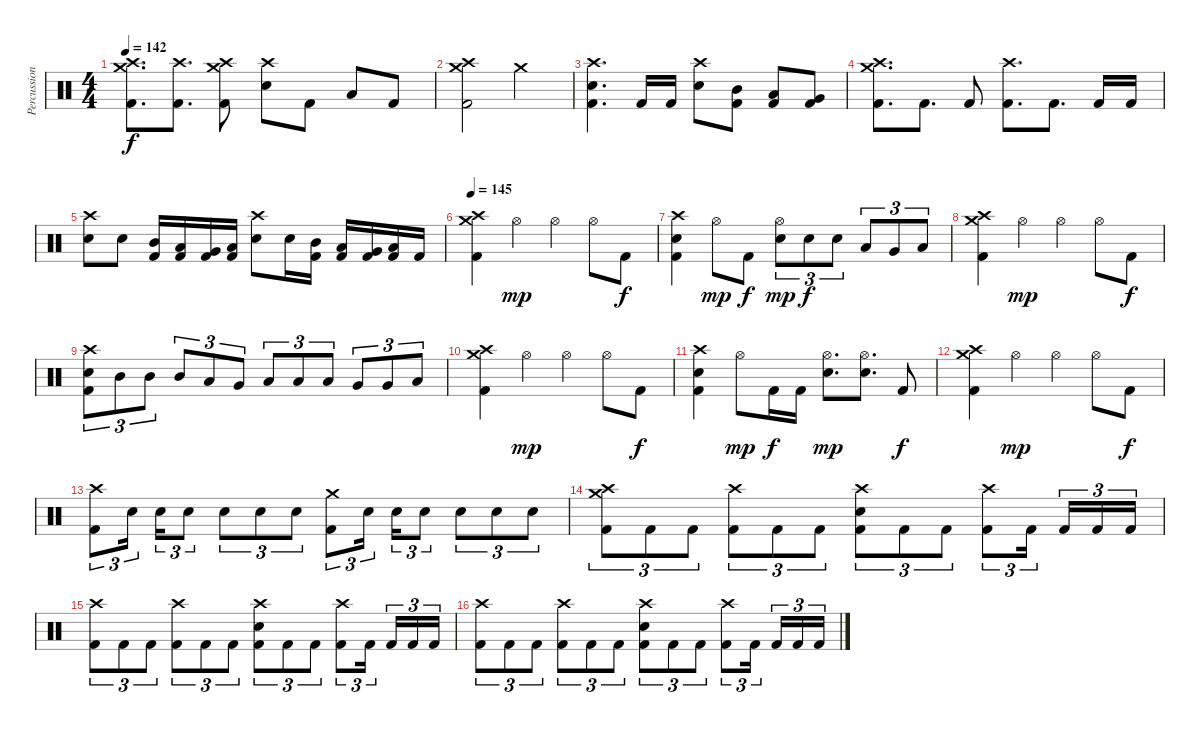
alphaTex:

\track ("Percussion" "Percussion") {instrument percussion}
\staff {score}
\articulation defaults
\ts (4 4)
\tempo 142
\clef neutral
\ks c
("Crash medium (hit)" "Crash high (hit)" "Kick (hit) 2").8{d dy f} ("Crash high (hit)" "Kick (hit) 2").8{d} ("Crash medium (hit)" "Crash high (hit)" "Kick (hit) 2").8 ("Crash high (hit)" "Electric Snare (hit)").8 "Kick (hit) 2".8 "Low Tom (hit)".8 "Kick (hit) 2".8 |
("Crash medium (hit)" "Crash high (hit)" "Kick (hit) 2").2 "Crash medium (hit)".2 |
("Crash high (hit)" "Electric Snare (hit)" "Kick (hit) 2").4{d} "Kick (hit) 2".16 "Kick (hit) 2".16 ("Crash high (hit)" "Electric Snare (hit)").8 ("Mid Tom (hit)" "Kick (hit) 2").8 ("Low Tom (hit)" "Kick (hit) 2").8 ("Very Low Tom (hit)" "Kick (hit) 2").8 |
("Crash medium (hit)" "Crash high (hit)" "Kick (hit) 2").8{d} "Kick (hit) 2".8{d} "Kick (hit) 2".8 ("Crash high (hit)" "Kick (hit) 2").8{d} "Kick (hit) 2".8{d} "Kick (hit) 2".16 "Kick (hit) 2".16 |
("Crash high (hit)" "Electric Snare (hit)").8 "Electric Snare (hit)".8 ("Mid Tom (hit)" "Kick (hit) 2").16 ("Low Tom (hit)" "Kick (hit) 2").16 ("Very Low Tom (hit)" "Kick (hit) 2").16 ("Low Floor Tom (hit)" "Kick (hit) 2").16 ("Crash high (hit)" "Electric Snare (hit)").8 "Electric Snare (hit)".16 ("Mid Tom (hit)" "Kick (hit) 2").16 ("Low Tom (hit)" "Kick (hit) 2").16 ("Very Low Tom (hit)" "Kick (hit) 2").16 ("Low Floor Tom (hit)" "Kick (hit) 2").16 "Kick (hit) 2".16 |
\tempo 145
("Crash medium (hit)" "Crash high (hit)" "Kick (hit) 2").4 "Hi-Hat (open)".4{dy mp} "Hi-Hat (open)".4 "Hi-Hat (open)".8 "Kick (hit) 2".8{dy f} |
("Crash high (hit)" "Electric Snare (hit)" "Kick (hit) 2").4 "Hi-Hat (open)".8{dy mp} "Kick (hit) 2".8{dy f} ("Hi-Hat (open)" "Electric Snare (hit)").8{tu (3 2) dy mp} "Electric Snare (hit)".8{tu (3 2) dy f} "Electric Snare (hit)".8{tu (3 2)} "Low Tom (hit)".8{tu (3 2)} "Very Low Tom (hit)".8{tu (3 2)} "Low Floor Tom (hit)".8{tu (3 2)} |
("Crash medium (hit)" "Crash high (hit)" "Kick (hit) 2").4 "Hi-Hat (open)".4{dy mp} "Hi-Hat (open)".4 "Hi-Hat (open)".8 "Kick (hit) 2".8{dy f} |
("Crash high (hit)" "Electric Snare (hit)" "Kick (hit) 2").8{tu (3 2)} "Mid Tom (hit)".8{tu (3 2)} "Mid Tom (hit)".8{tu (3 2)} "Mid Tom (hit)".8{tu (3 2)} "Low Tom (hit)".8{tu (3 2)} "Very Low Tom (hit)".8{tu (3 2)} "Low Tom (hit)".8{tu (3 2)} "Low Tom (hit)".8{tu (3 2)} "Low Tom (hit)".8{tu (3 2)} "Very Low Tom (hit)".8{tu (3 2)} "Very Low Tom (hit)".8{tu (3 2)} "Low Floor Tom (hit)".8{tu (3 2)} |
("Crash medium (hit)" "Crash high (hit)" "Kick (hit) 2").4 "Hi-Hat (open)".4{dy mp} "Hi-Hat (open)".4 "Hi-Hat (open)".8 "Kick (hit) 2".8{dy f} |
("Crash high (hit)" "Electric Snare (hit)" "Kick (hit) 2").4 "Hi-Hat (open)".8{dy mp} "Kick (hit) 2".16{dy f} "Kick (hit) 2".16 ("Hi-Hat (open)" "Electric Snare (hit)").8{d dy mp} ("Hi-Hat (open)" "Electric Snare (hit)").8{d} "Kick (hit) 2".8{dy f} |
("Crash medium (hit)" "Crash high (hit)" "Kick (hit) 2").4 "Hi-Hat (open)".4{dy mp} "Hi-Hat (open)".4 "Hi-Hat (open)".8 "Kick (hit) 2".8{dy f} |
("Crash high (hit)" "Kick (hit) 2").8{tu (3 2)} "Electric Snare (hit)".16{tu (3 2) beam splitsecondary} "Electric Snare (hit)".16{tu (3 2)} "Electric Snare (hit)".8{tu (3 2)} "Electric Snare (hit)".8{tu (3 2)} "Electric Snare (hit)".8{tu (3 2)} "Electric Snare (hit)".8{tu (3 2)} ("Crash medium (hit)" "Kick (hit) 2").8{tu (3 2)} "Electric Snare (hit)".16{tu (3 2) beam splitsecondary} "Electric Snare (hit)".16{tu (3 2)} "Electric Snare (hit)".8{tu (3 2)} "Electric Snare (hit)".8{tu (3 2)} "Electric Snare (hit)".8{tu (3 2)} "Electric Snare (hit)".8{tu (3 2)} |
("Crash medium (hit)" "Crash high (hit)" "Kick (hit) 2").8{tu (3 2)} "Kick (hit) 2".8{tu (3 2)} "Kick (hit) 2".8{tu (3 2)} ("Crash high (hit)" "Kick (hit) 2").8{tu (3 2)} "Kick (hit) 2".8{tu (3 2)} "Kick (hit) 2".8{tu (3 2)} ("Crash high (hit)" "Electric Snare (hit)" "Kick (hit) 2").8{tu (3 2)} "Kick (hit) 2".8{tu (3 2)} "Kick (hit) 2".8{tu (3 2)} ("Crash high (hit)" "Kick (hit) 2").8{tu (3 2)} "Kick (hit) 2".16{tu (3 2) beam splitsecondary} "Kick (hit) 2".16{tu (3 2)} "Kick (hit) 2".16{tu (3 2)} "Kick (hit) 2".16{tu (3 2)} |
("Crash high (hit)" "Kick (hit) 2").8{tu (3 2)} "Kick (hit) 2".8{tu (3 2)} "Kick (hit) 2".8{tu (3 2)} ("Crash high (hit)" "Kick (hit) 2").8{tu (3 2)} "Kick (hit) 2".8{tu (3 2)} "Kick (hit) 2".8{tu (3 2)} ("Crash high (hit)" "Electric Snare (hit)" "Kick (hit) 2").8{tu (3 2)} "Kick (hit) 2".8{tu (3 2)} "Kick (hit) 2".8{tu (3 2)} ("Crash high (hit)" "Kick (hit) 2").8{tu (3 2)} "Kick (hit) 2".16{tu (3 2) beam splitsecondary} "Kick (hit) 2".16{tu (3 2)} "Kick (hit) 2".16{tu (3 2)} "Kick (hit) 2".16{tu (3 2)} |
("Crash high (hit)" "Kick (hit) 2").8{tu (3 2)} "Kick (hit) 2".8{tu (3 2)} "Kick (hit) 2".8{tu (3 2)} ("Crash high (hit)" "Kick (hit) 2").8{tu (3 2)} "Kick (hit) 2".8{tu (3 2)} "Kick (hit) 2".8{tu (3 2)} ("Crash high (hit)" "Electric Snare (hit)" "Kick (hit) 2").8{tu (3 2)} "Kick (hit) 2".8{tu (3 2)} "Kick (hit) 2".8{tu (3 2)} ("Crash high (hit)" "Kick (hit) 2").8{tu (3 2)} "Kick (hit) 2".16{tu (3 2) beam splitsecondary} "Kick (hit) 2".16{tu (3 2)} "Kick (hit) 2".16{tu (3 2)} "Kick (hit) 2".16{tu (3 2)}
